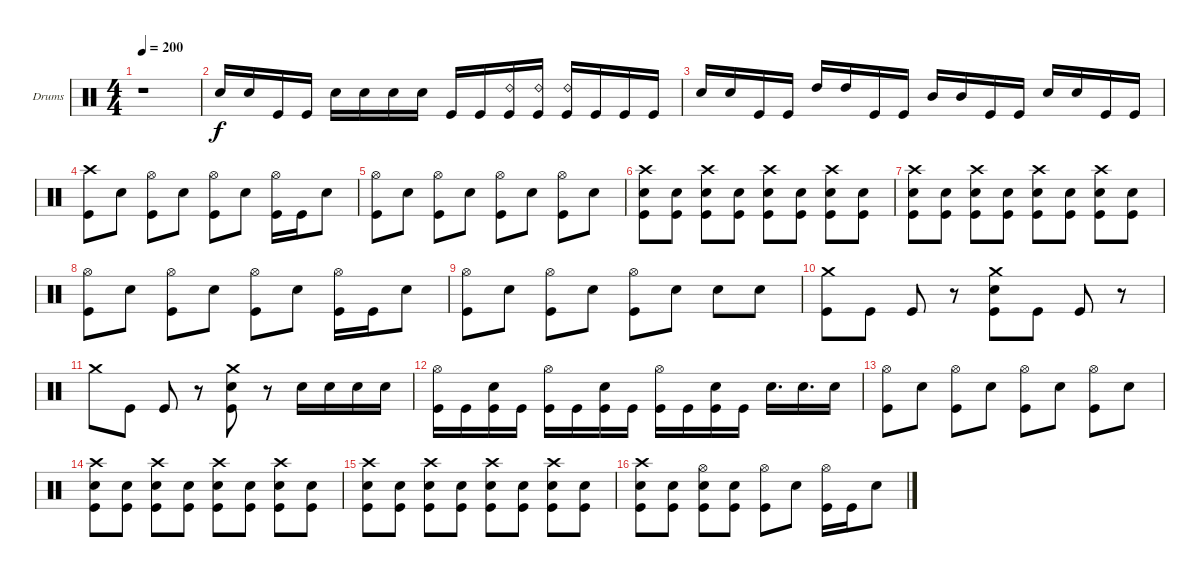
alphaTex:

\bracketExtendMode groupsimilarinstruments
\firstSystemTrackNameOrientation horizontal
\otherSystemsTrackNameOrientation horizontal
\track ("Drumkit" "Drums") {instrument percussion}
\staff {score}
\articulation defaults
\ts (4 4)
\beaming (8 2 2 2 2)
\tempo 200
\clef neutral
\ks c
r.1{dy f} |
"Snare (hit) 2".16 "Snare (hit) 2".16 "Kick (hit)".16 "Kick (hit)".16 "Snare (hit) 2".16 "Snare (hit) 2".16 "Snare (hit) 2".16 "Snare (hit) 2".16 "Kick (hit)".16 "Kick (hit)".16 ("Kick (hit)" "Ride (bell) 2").16 ("Kick (hit)" "Ride (bell) 2").16 ("Kick (hit)" "Ride (bell) 2").16 "Kick (hit)".16 "Kick (hit)".16 "Kick (hit)".16 |
"Snare (hit) 2".16 "Snare (hit) 2".16 "Kick (hit)".16 "Kick (hit)".16 "High Tom (hit)".16 "High Tom (hit)".16 "Kick (hit)".16 "Kick (hit)".16 "Mid Tom (hit)".16 "Mid Tom (hit)".16 "Kick (hit)".16 "Kick (hit)".16 "Snare (hit) 2".16 "Snare (hit) 2".16 "Kick (hit)".16 "Kick (hit)".16 |
("Kick (hit)" "Crash high (hit)").8 "Snare (hit) 2".8 ("Kick (hit)" "Hi-Hat (open)").8 "Snare (hit) 2".8 ("Kick (hit)" "Hi-Hat (open)").8 "Snare (hit) 2".8 ("Kick (hit)" "Hi-Hat (open)").16 "Kick (hit)".16 "Snare (hit) 2".8 |
("Kick (hit)" "Hi-Hat (open)").8 "Snare (hit) 2".8 ("Kick (hit)" "Hi-Hat (open)").8 "Snare (hit) 2".8 ("Kick (hit)" "Hi-Hat (open)").8 "Snare (hit) 2".8 ("Kick (hit)" "Hi-Hat (open)").8 "Snare (hit) 2".8 |
("Kick (hit)" "Snare (hit) 2" "Crash high (hit)").8 ("Kick (hit)" "Snare (hit) 2").8 ("Kick (hit)" "Snare (hit) 2" "Crash high (hit)").8 ("Kick (hit)" "Snare (hit) 2").8 ("Kick (hit)" "Snare (hit) 2" "Crash high (hit)").8 ("Kick (hit)" "Snare (hit) 2").8 ("Kick (hit)" "Snare (hit) 2" "Crash high (hit)").8 ("Kick (hit)" "Snare (hit) 2").8 |
("Kick (hit)" "Snare (hit) 2" "Crash high (hit)").8 ("Kick (hit)" "Snare (hit) 2").8 ("Kick (hit)" "Snare (hit) 2" "Crash high (hit)").8 ("Kick (hit)" "Snare (hit) 2").8 ("Kick (hit)" "Snare (hit) 2" "Crash high (hit)").8 ("Kick (hit)" "Snare (hit) 2").8 ("Kick (hit)" "Snare (hit) 2" "Crash high (hit)").8 ("Kick (hit)" "Snare (hit) 2").8 |
("Kick (hit)" "Hi-Hat (open)").8 "Snare (hit) 2".8 ("Kick (hit)" "Hi-Hat (open)").8 "Snare (hit) 2".8 ("Kick (hit)" "Hi-Hat (open)").8 "Snare (hit) 2".8 ("Kick (hit)" "Hi-Hat (open)").16 "Kick (hit)".16 "Snare (hit) 2".8 |
("Kick (hit)" "Hi-Hat (open)").8 "Snare (hit) 2".8 ("Kick (hit)" "Hi-Hat (open)").8 "Snare (hit) 2".8 ("Kick (hit)" "Hi-Hat (open)").8 "Snare (hit) 2".8 "Snare (hit) 2".8 "Snare (hit) 2".8 |
("Kick (hit)" "Crash medium (hit)").8 "Kick (hit)".8 "Kick (hit)".8 r.8 ("Kick (hit)" "Crash medium (hit)" "Snare (hit) 2").8 "Kick (hit)".8 "Kick (hit)".8 r.8 |
"Crash medium (hit)".8 "Kick (hit)".8 "Kick (hit)".8 r.8 ("Kick (hit)" "Snare (hit) 2" "Crash medium (hit)").8 r.8 "Snare (hit) 2".16 "Snare (hit) 2".16 "Snare (hit) 2".16 "Snare (hit) 2".16 |
("Kick (hit)" "Hi-Hat (open)").16 "Kick (hit)".16 ("Kick (hit)" "Snare (hit) 2").16 "Kick (hit)".16 ("Kick (hit)" "Hi-Hat (open)").16 "Kick (hit)".16 ("Kick (hit)" "Snare (hit) 2").16 "Kick (hit)".16 ("Kick (hit)" "Hi-Hat (open)").16 "Kick (hit)".16 ("Kick (hit)" "Snare (hit) 2").16 "Kick (hit)".16 "Snare (hit) 2".16{d} "Snare (hit) 2".16{d} "Snare (hit) 2".16 |
("Kick (hit)" "Hi-Hat (open)").8 "Snare (hit) 2".8 ("Kick (hit)" "Hi-Hat (open)").8 "Snare (hit) 2".8 ("Kick (hit)" "Hi-Hat (open)").8 "Snare (hit) 2".8 ("Kick (hit)" "Hi-Hat (open)").8 "Snare (hit) 2".8 |
("Kick (hit)" "Snare (hit) 2" "Crash high (hit)").8 ("Kick (hit)" "Snare (hit) 2").8 ("Kick (hit)" "Snare (hit) 2" "Crash high (hit)").8 ("Kick (hit)" "Snare (hit) 2").8 ("Kick (hit)" "Snare (hit) 2" "Crash high (hit)").8 ("Kick (hit)" "Snare (hit) 2").8 ("Kick (hit)" "Snare (hit) 2" "Crash high (hit)").8 ("Kick (hit)" "Snare (hit) 2").8 |
("Kick (hit)" "Snare (hit) 2" "Crash high (hit)").8 ("Kick (hit)" "Snare (hit) 2").8 ("Kick (hit)" "Snare (hit) 2" "Crash high (hit)").8 ("Kick (hit)" "Snare (hit) 2").8 ("Kick (hit)" "Snare (hit) 2" "Crash high (hit)").8 ("Kick (hit)" "Snare (hit) 2").8 ("Kick (hit)" "Snare (hit) 2" "Crash high (hit)").8 ("Kick (hit)" "Snare (hit) 2").8 |
("Kick (hit)" "Snare (hit) 2" "Crash high (hit)").8 ("Snare (hit) 2" "Kick (hit)").8 ("Kick (hit)" "Hi-Hat (open)" "Snare (hit) 2").8 ("Snare (hit) 2" "Kick (hit)").8 ("Kick (hit)" "Hi-Hat (open)").8 "Snare (hit) 2".8 ("Kick (hit)" "Hi-Hat (open)").16 "Kick (hit)".16 "Snare (hit) 2".8
